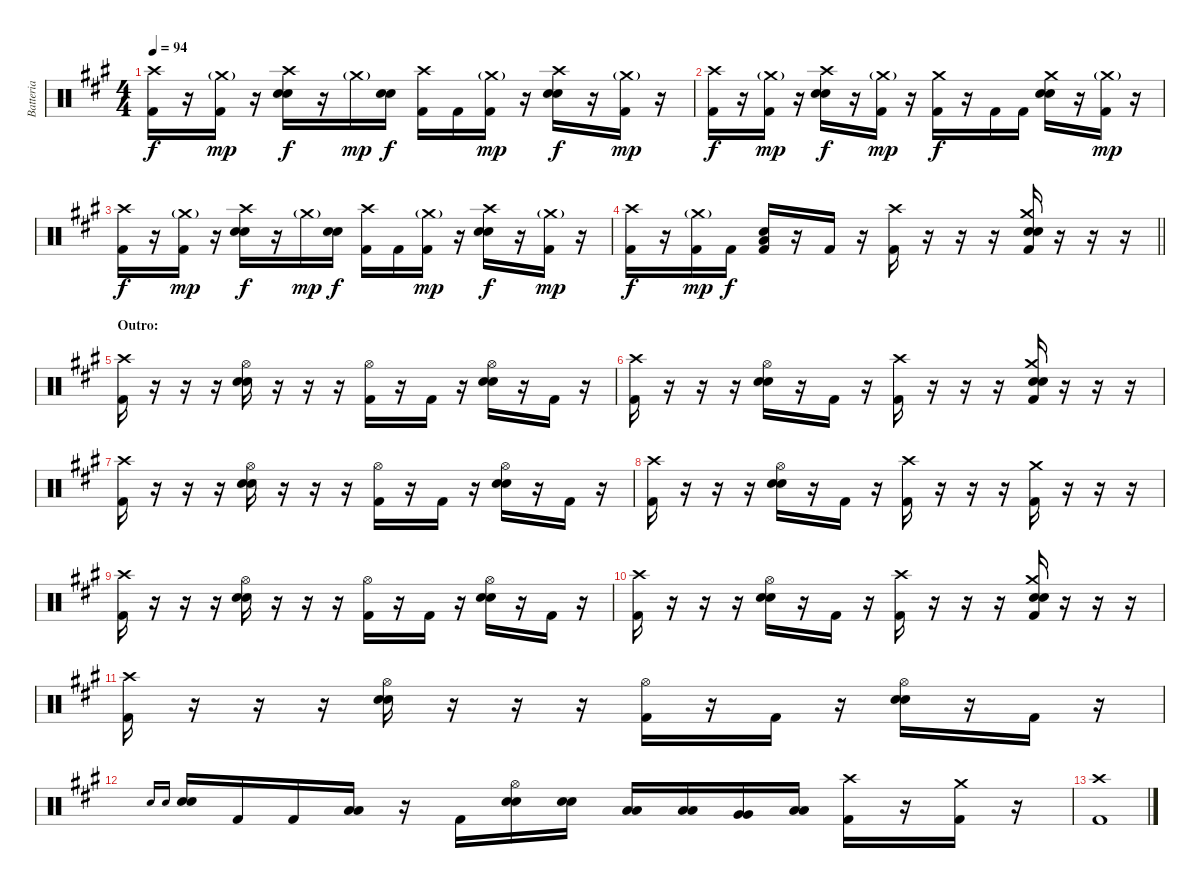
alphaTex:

\track ("Batteria" "Batteria") {instrument percussion}
\staff {score}
\articulation defaults
\ts (4 4)
\tempo 94
\clef neutral
\ks a
("Kick (hit) 2" "Crash high (hit)").16{dy f} r.16 ("Kick (hit) 2" "Crash medium (hit)"{g}).16{dy mp} r.16 ("Snare (hit) 2" "Snare (hit) 2" "Crash high (hit)").16{dy f} r.16 "Crash medium (hit)"{g}.16{dy mp} ("Snare (hit) 2" "Snare (hit) 2").16{dy f} ("Kick (hit) 2" "Crash high (hit)").16 "Kick (hit) 2".16 ("Kick (hit) 2" "Crash medium (hit)"{g}).16{dy mp} r.16 ("Snare (hit) 2" "Snare (hit) 2" "Crash high (hit)").16{dy f} r.16 ("Kick (hit) 2" "Crash medium (hit)"{g}).16{dy mp} r.16 |
("Kick (hit) 2" "Crash high (hit)").16{dy f} r.16 ("Kick (hit) 2" "Crash medium (hit)"{g}).16{dy mp} r.16 ("Snare (hit) 2" "Snare (hit) 2" "Crash high (hit)").16{dy f} r.16 ("Kick (hit) 2" "Crash medium (hit)"{g}).16{dy mp} r.16 ("Kick (hit) 2" "Crash medium (hit)").16{dy f} r.16 "Kick (hit) 2".16 "Kick (hit) 2".16 ("Snare (hit) 2" "Snare (hit) 2" "Crash medium (hit)").16 r.16 ("Kick (hit) 2" "Crash medium (hit)"{g}).16{dy mp} r.16 |
("Kick (hit) 2" "Crash high (hit)").16{dy f} r.16 ("Kick (hit) 2" "Crash medium (hit)"{g}).16{dy mp} r.16 ("Snare (hit) 2" "Snare (hit) 2" "Crash high (hit)").16{dy f} r.16 "Crash medium (hit)"{g}.16{dy mp} ("Snare (hit) 2" "Snare (hit) 2").16{dy f} ("Kick (hit) 2" "Crash high (hit)").16 "Kick (hit) 2".16 ("Kick (hit) 2" "Crash medium (hit)"{g}).16{dy mp} r.16 ("Snare (hit) 2" "Snare (hit) 2" "Crash high (hit)").16{dy f} r.16 ("Kick (hit) 2" "Crash medium (hit)"{g}).16{dy mp} r.16 |
\barLineRight lightlight
("Kick (hit) 2" "Crash high (hit)").16{dy f} r.16 ("Kick (hit) 2" "Crash medium (hit)"{g}).16{dy mp} "Kick (hit) 2".16{dy f} ("Kick (hit) 2" "Snare (hit) 2" "Low Floor Tom (hit)").16 r.16 "Kick (hit) 2".16 r.16 ("Kick (hit) 2" "Crash high (hit)").16 r.16 r.16 r.16 ("Kick (hit) 2" "Snare (hit) 2" "Snare (hit) 2" "Crash medium (hit)").16 r.16 r.16 r.16 |
\section ("" "Outro:")
("Kick (hit) 2" "Crash high (hit)").16 r.16 r.16 r.16 ("Snare (hit) 2" "Snare (hit) 2" "Hi-Hat (open)").16 r.16 r.16 r.16 ("Kick (hit) 2" "Hi-Hat (open)").16 r.16 "Kick (hit) 2".16 r.16 ("Snare (hit) 2" "Snare (hit) 2" "Hi-Hat (open)").16 r.16 "Kick (hit) 2".16 r.16 |
("Kick (hit) 2" "Crash high (hit)").16 r.16 r.16 r.16 ("Snare (hit) 2" "Snare (hit) 2" "Hi-Hat (open)").16 r.16 "Kick (hit) 2".16 r.16 ("Kick (hit) 2" "Crash high (hit)").16 r.16 r.16 r.16 ("Kick (hit) 2" "Snare (hit) 2" "Snare (hit) 2" "Crash medium (hit)").16 r.16 r.16 r.16 |
("Kick (hit) 2" "Crash high (hit)").16 r.16 r.16 r.16 ("Snare (hit) 2" "Snare (hit) 2" "Hi-Hat (open)").16 r.16 r.16 r.16 ("Kick (hit) 2" "Hi-Hat (open)").16 r.16 "Kick (hit) 2".16 r.16 ("Snare (hit) 2" "Snare (hit) 2" "Hi-Hat (open)").16 r.16 "Kick (hit) 2".16 r.16 |
("Kick (hit) 2" "Crash high (hit)").16 r.16 r.16 r.16 ("Snare (hit) 2" "Snare (hit) 2" "Hi-Hat (open)").16 r.16 "Kick (hit) 2".16 r.16 ("Kick (hit) 2" "Crash high (hit)").16 r.16 r.16 r.16 ("Kick (hit) 2" "Crash medium (hit)").16 r.16 r.16 r.16 |
("Kick (hit) 2" "Crash high (hit)").16 r.16 r.16 r.16 ("Snare (hit) 2" "Snare (hit) 2" "Hi-Hat (open)").16 r.16 r.16 r.16 ("Kick (hit) 2" "Hi-Hat (open)").16 r.16 "Kick (hit) 2".16 r.16 ("Snare (hit) 2" "Snare (hit) 2" "Hi-Hat (open)").16 r.16 "Kick (hit) 2".16 r.16 |
("Kick (hit) 2" "Crash high (hit)").16 r.16 r.16 r.16 ("Snare (hit) 2" "Snare (hit) 2" "Hi-Hat (open)").16 r.16 "Kick (hit) 2".16 r.16 ("Kick (hit) 2" "Crash high (hit)").16 r.16 r.16 r.16 ("Kick (hit) 2" "Snare (hit) 2" "Snare (hit) 2" "Crash medium (hit)").16 r.16 r.16 r.16 |
("Kick (hit) 2" "Crash high (hit)").16 r.16 r.16 r.16 ("Snare (hit) 2" "Snare (hit) 2" "Hi-Hat (open)").16 r.16 r.16 r.16 ("Kick (hit) 2" "Hi-Hat (open)").16 r.16 "Kick (hit) 2".16 r.16 ("Snare (hit) 2" "Snare (hit) 2" "Hi-Hat (open)").16 r.16 "Kick (hit) 2".16 r.16 |
"Snare (hit) 2".16{gr onbeat} "Snare (hit) 2".16{gr onbeat} ("Snare (hit) 2" "Snare (hit) 2").16 "Kick (hit) 2".16 "Kick (hit) 2".16 ("Low Floor Tom (hit)" "Low Floor Tom (hit)").16 r.16 "Kick (hit) 2".16 ("Snare (hit) 2" "Snare (hit) 2" "Hi-Hat (open)").16 ("Snare (hit) 2" "Snare (hit) 2").16 ("Low Tom (hit)" "Low Tom (hit)").16 ("Low Tom (hit)" "Low Tom (hit)").16 ("Very Low Tom (hit)" "Very Low Tom (hit)").16 ("Low Floor Tom (hit)" "Low Floor Tom (hit)").16 ("Kick (hit) 2" "Crash high (hit)").16 r.16 ("Kick (hit) 2" "Crash medium (hit)").16 r.16 |
("Kick (hit) 2" "Crash high (hit)").1
